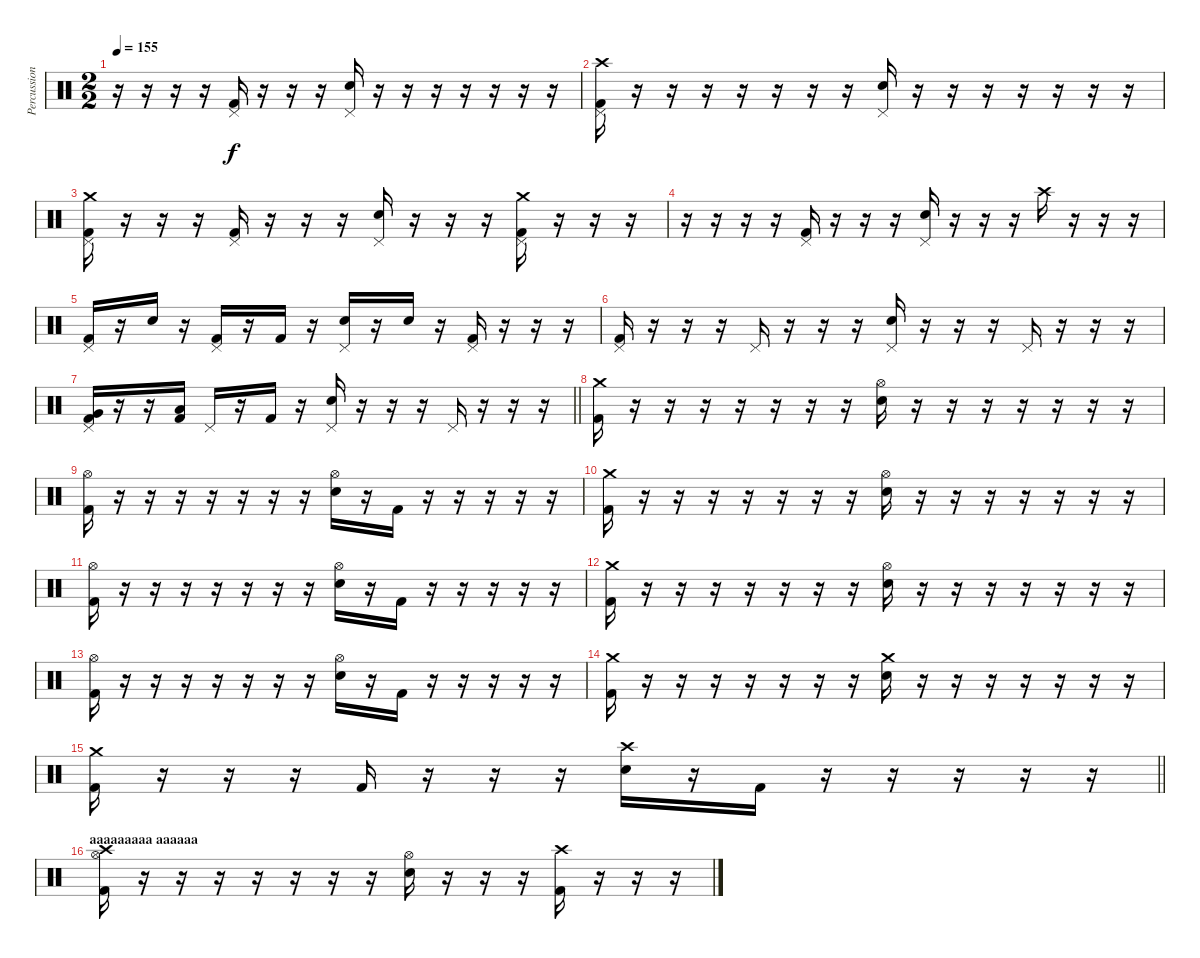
\track ("Percussion" "Percussion") {instrument percussion}
\staff {score}
\articulation defaults
\ts (2 2)
\tempo 155
\clef neutral
\ks c
r.16{dy f} r.16 r.16 r.16 ("Pedal Hi-Hat (hit)" "Kick (hit) 2").16 r.16 r.16 r.16 ("Pedal Hi-Hat (hit)" "Snare (hit) 2").16 r.16 r.16 r.16 r.16 r.16 r.16 r.16 |
("Crash high (hit)" "Pedal Hi-Hat (hit)" "Kick (hit) 2").16 r.16 r.16 r.16 r.16 r.16 r.16 r.16 ("Pedal Hi-Hat (hit)" "Snare (hit) 2").16 r.16 r.16 r.16 r.16 r.16 r.16 r.16 |
("Crash medium (hit)" "Pedal Hi-Hat (hit)" "Kick (hit) 2").16 r.16 r.16 r.16 ("Pedal Hi-Hat (hit)" "Kick (hit) 2").16 r.16 r.16 r.16 ("Pedal Hi-Hat (hit)" "Snare (hit) 2").16 r.16 r.16 r.16 ("Crash medium (hit)" "Pedal Hi-Hat (hit)" "Kick (hit) 2").16 r.16 r.16 r.16 |
r.16 r.16 r.16 r.16 ("Pedal Hi-Hat (hit)" "Kick (hit) 2").16 r.16 r.16 r.16 ("Pedal Hi-Hat (hit)" "Snare (hit) 2").16 r.16 r.16 r.16 "Crash high (hit)".16 r.16 r.16 r.16 |
("Pedal Hi-Hat (hit)" "Kick (hit) 2").16 r.16 "Snare (hit) 2".16 r.16 ("Pedal Hi-Hat (hit)" "Kick (hit) 2").16 r.16 "Kick (hit) 2".16 r.16 ("Pedal Hi-Hat (hit)" "Snare (hit) 2").16 r.16 "Snare (hit) 2".16 r.16 ("Pedal Hi-Hat (hit)" "Kick (hit) 2").16 r.16 r.16 r.16 |
("Pedal Hi-Hat (hit)" "Kick (hit) 2").16 r.16 r.16 r.16 "Pedal Hi-Hat (hit)".16 r.16 r.16 r.16 ("Pedal Hi-Hat (hit)" "Snare (hit) 2").16 r.16 r.16 r.16 "Pedal Hi-Hat (hit)".16 r.16 r.16 r.16 |
\barLineRight lightlight
("Pedal Hi-Hat (hit)" "Very Low Tom (hit)" "Kick (hit) 2").16 r.16 r.16 ("Low Floor Tom (hit)" "Kick (hit) 2").16 "Pedal Hi-Hat (hit)".16 r.16 "Kick (hit) 2".16 r.16 ("Pedal Hi-Hat (hit)" "Snare (hit) 2").16 r.16 r.16 r.16 "Pedal Hi-Hat (hit)".16 r.16 r.16 r.16 |
("Crash medium (hit)" "Kick (hit) 2").16 r.16 r.16 r.16 r.16 r.16 r.16 r.16 ("Hi-Hat (open)" "Snare (hit) 2").16 r.16 r.16 r.16 r.16 r.16 r.16 r.16 |
("Hi-Hat (open)" "Kick (hit) 2").16 r.16 r.16 r.16 r.16 r.16 r.16 r.16 ("Hi-Hat (open)" "Snare (hit) 2").16 r.16 "Kick (hit) 2".16 r.16 r.16 r.16 r.16 r.16 |
("Crash medium (hit)" "Kick (hit) 2").16 r.16 r.16 r.16 r.16 r.16 r.16 r.16 ("Hi-Hat (open)" "Snare (hit) 2").16 r.16 r.16 r.16 r.16 r.16 r.16 r.16 |
("Hi-Hat (open)" "Kick (hit) 2").16 r.16 r.16 r.16 r.16 r.16 r.16 r.16 ("Hi-Hat (open)" "Snare (hit) 2").16 r.16 "Kick (hit) 2".16 r.16 r.16 r.16 r.16 r.16 |
("Crash medium (hit)" "Kick (hit) 2").16 r.16 r.16 r.16 r.16 r.16 r.16 r.16 ("Hi-Hat (open)" "Snare (hit) 2").16 r.16 r.16 r.16 r.16 r.16 r.16 r.16 |
("Hi-Hat (open)" "Kick (hit) 2").16 r.16 r.16 r.16 r.16 r.16 r.16 r.16 ("Hi-Hat (open)" "Snare (hit) 2").16 r.16 "Kick (hit) 2".16 r.16 r.16 r.16 r.16 r.16 |
("Crash medium (hit)" "Kick (hit) 2").16 r.16 r.16 r.16 r.16 r.16 r.16 r.16 ("Crash medium (hit)" "Snare (hit) 2").16 r.16 r.16 r.16 r.16 r.16 r.16 r.16 |
\barLineRight lightlight
("Crash medium (hit)" "Kick (hit) 2").16 r.16 r.16 r.16 "Kick (hit) 2".16 r.16 r.16 r.16 ("Crash high (hit)" "Snare (hit) 2").16 r.16 "Kick (hit) 2".16 r.16 r.16 r.16 r.16 r.16 |
\section ("" "aaaaaaaaa aaaaaa")
("Hi-Hat (open)" "Crash high (hit)" "Kick (hit) 2").16 r.16 r.16 r.16 r.16 r.16 r.16 r.16 ("Hi-Hat (open)" "Snare (hit) 2").16 r.16 r.16 r.16 ("Crash high (hit)" "Kick (hit) 2").16 r.16 r.16 r.16
